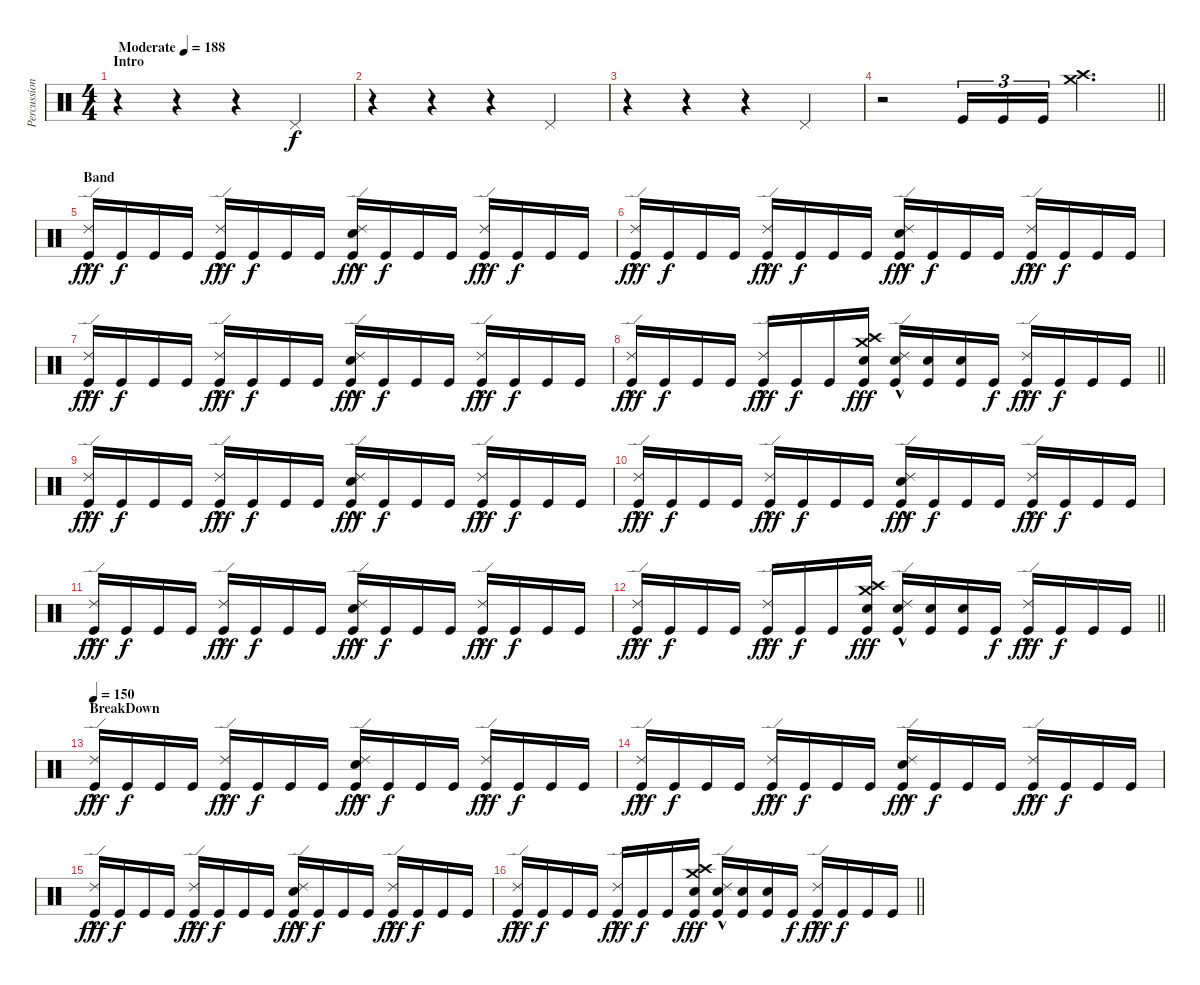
\track ("Percussion" "Percussion") {instrument percussion}
\staff {score}
\articulation defaults
\ts (4 4)
\section ("" "Intro")
\tempo (188 "Moderate")
\clef neutral
\ks c
r.4{dy f} r.4 r.4 "Pedal Hi-Hat (hit)".4 |
r.4 r.4 r.4 "Pedal Hi-Hat (hit)".4 |
r.4 r.4 r.4 "Pedal Hi-Hat (hit)".4 |
\barLineRight lightlight
r.2 "Kick (hit)".16{tu (3 2)} "Kick (hit)".16{tu (3 2)} "Kick (hit)".16{tu (3 2)} ("Crash high (hit)" "Crash medium (hit)").4{d} |
\section ("" "Band")
("Ride (edge) 2"{hac} "Kick (hit)").16{dy fff} "Kick (hit)".16{dy f} "Kick (hit)".16 "Kick (hit)".16 ("Ride (edge) 2"{hac} "Kick (hit)").16{dy fff} "Kick (hit)".16{dy f} "Kick (hit)".16 "Kick (hit)".16 ("Ride (edge) 2"{hac} "Snare (hit) 2" "Kick (hit)").16{dy fff} "Kick (hit)".16{dy f} "Kick (hit)".16 "Kick (hit)".16 ("Ride (edge) 2"{hac} "Kick (hit)").16{dy fff} "Kick (hit)".16{dy f} "Kick (hit)".16 "Kick (hit)".16 |
("Ride (edge) 2"{hac} "Kick (hit)").16{dy fff} "Kick (hit)".16{dy f} "Kick (hit)".16 "Kick (hit)".16 ("Ride (edge) 2"{hac} "Kick (hit)").16{dy fff} "Kick (hit)".16{dy f} "Kick (hit)".16 "Kick (hit)".16 ("Ride (edge) 2"{hac} "Snare (hit) 2" "Kick (hit)").16{dy fff} "Kick (hit)".16{dy f} "Kick (hit)".16 "Kick (hit)".16 ("Ride (edge) 2"{hac} "Kick (hit)").16{dy fff} "Kick (hit)".16{dy f} "Kick (hit)".16 "Kick (hit)".16 |
("Ride (edge) 2"{hac} "Kick (hit)").16{dy fff} "Kick (hit)".16{dy f} "Kick (hit)".16 "Kick (hit)".16 ("Ride (edge) 2"{hac} "Kick (hit)").16{dy fff} "Kick (hit)".16{dy f} "Kick (hit)".16 "Kick (hit)".16 ("Ride (edge) 2"{hac} "Snare (hit) 2" "Kick (hit)").16{dy fff} "Kick (hit)".16{dy f} "Kick (hit)".16 "Kick (hit)".16 ("Ride (edge) 2"{hac} "Kick (hit)").16{dy fff} "Kick (hit)".16{dy f} "Kick (hit)".16 "Kick (hit)".16 |
\barLineRight lightlight
("Ride (edge) 2"{hac} "Kick (hit)").16{dy fff} "Kick (hit)".16{dy f} "Kick (hit)".16 "Kick (hit)".16 ("Ride (edge) 2"{hac} "Kick (hit)").16{dy fff} "Kick (hit)".16{dy f} "Kick (hit)".16 ("Crash medium (hit)" "Crash high (hit)" "Snare (hit) 2" "Kick (hit)").16{dy fff} ("Ride (edge) 2"{hac} "Snare (hit) 2" "Kick (hit)").16 ("Snare (hit) 2" "Kick (hit)").16 ("Snare (hit) 2" "Kick (hit)").16 "Kick (hit)".16{dy f} ("Ride (edge) 2"{hac} "Kick (hit)").16{dy fff} "Kick (hit)".16{dy f} "Kick (hit)".16 "Kick (hit)".16 |
("Ride (edge) 2"{hac} "Kick (hit)").16{dy fff} "Kick (hit)".16{dy f} "Kick (hit)".16 "Kick (hit)".16 ("Ride (edge) 2"{hac} "Kick (hit)").16{dy fff} "Kick (hit)".16{dy f} "Kick (hit)".16 "Kick (hit)".16 ("Ride (edge) 2"{hac} "Snare (hit) 2" "Kick (hit)").16{dy fff} "Kick (hit)".16{dy f} "Kick (hit)".16 "Kick (hit)".16 ("Ride (edge) 2"{hac} "Kick (hit)").16{dy fff} "Kick (hit)".16{dy f} "Kick (hit)".16 "Kick (hit)".16 |
("Ride (edge) 2"{hac} "Kick (hit)").16{dy fff} "Kick (hit)".16{dy f} "Kick (hit)".16 "Kick (hit)".16 ("Ride (edge) 2"{hac} "Kick (hit)").16{dy fff} "Kick (hit)".16{dy f} "Kick (hit)".16 "Kick (hit)".16 ("Ride (edge) 2"{hac} "Snare (hit) 2" "Kick (hit)").16{dy fff} "Kick (hit)".16{dy f} "Kick (hit)".16 "Kick (hit)".16 ("Ride (edge) 2"{hac} "Kick (hit)").16{dy fff} "Kick (hit)".16{dy f} "Kick (hit)".16 "Kick (hit)".16 |
("Ride (edge) 2"{hac} "Kick (hit)").16{dy fff} "Kick (hit)".16{dy f} "Kick (hit)".16 "Kick (hit)".16 ("Ride (edge) 2"{hac} "Kick (hit)").16{dy fff} "Kick (hit)".16{dy f} "Kick (hit)".16 "Kick (hit)".16 ("Ride (edge) 2"{hac} "Snare (hit) 2" "Kick (hit)").16{dy fff} "Kick (hit)".16{dy f} "Kick (hit)".16 "Kick (hit)".16 ("Ride (edge) 2"{hac} "Kick (hit)").16{dy fff} "Kick (hit)".16{dy f} "Kick (hit)".16 "Kick (hit)".16 |
\barLineRight lightlight
("Ride (edge) 2"{hac} "Kick (hit)").16{dy fff} "Kick (hit)".16{dy f} "Kick (hit)".16 "Kick (hit)".16 ("Ride (edge) 2"{hac} "Kick (hit)").16{dy fff} "Kick (hit)".16{dy f} "Kick (hit)".16 ("Crash medium (hit)" "Crash high (hit)" "Snare (hit) 2" "Kick (hit)").16{dy fff} ("Ride (edge) 2"{hac} "Snare (hit) 2" "Kick (hit)").16 ("Snare (hit) 2" "Kick (hit)").16 ("Snare (hit) 2" "Kick (hit)").16 "Kick (hit)".16{dy f} ("Ride (edge) 2"{hac} "Kick (hit)").16{dy fff} "Kick (hit)".16{dy f} "Kick (hit)".16 "Kick (hit)".16 |
\section ("" "BreakDown")
\tempo 150
("Ride (edge) 2"{hac} "Kick (hit)").16{dy fff} "Kick (hit)".16{dy f} "Kick (hit)".16 "Kick (hit)".16 ("Ride (edge) 2"{hac} "Kick (hit)").16{dy fff} "Kick (hit)".16{dy f} "Kick (hit)".16 "Kick (hit)".16 ("Ride (edge) 2"{hac} "Snare (hit) 2" "Kick (hit)").16{dy fff} "Kick (hit)".16{dy f} "Kick (hit)".16 "Kick (hit)".16 ("Ride (edge) 2"{hac} "Kick (hit)").16{dy fff} "Kick (hit)".16{dy f} "Kick (hit)".16 "Kick (hit)".16 |
("Ride (edge) 2"{hac} "Kick (hit)").16{dy fff} "Kick (hit)".16{dy f} "Kick (hit)".16 "Kick (hit)".16 ("Ride (edge) 2"{hac} "Kick (hit)").16{dy fff} "Kick (hit)".16{dy f} "Kick (hit)".16 "Kick (hit)".16 ("Ride (edge) 2"{hac} "Snare (hit) 2" "Kick (hit)").16{dy fff} "Kick (hit)".16{dy f} "Kick (hit)".16 "Kick (hit)".16 ("Ride (edge) 2"{hac} "Kick (hit)").16{dy fff} "Kick (hit)".16{dy f} "Kick (hit)".16 "Kick (hit)".16 |
("Ride (edge) 2"{hac} "Kick (hit)").16{dy fff} "Kick (hit)".16{dy f} "Kick (hit)".16 "Kick (hit)".16 ("Ride (edge) 2"{hac} "Kick (hit)").16{dy fff} "Kick (hit)".16{dy f} "Kick (hit)".16 "Kick (hit)".16 ("Ride (edge) 2"{hac} "Snare (hit) 2" "Kick (hit)").16{dy fff} "Kick (hit)".16{dy f} "Kick (hit)".16 "Kick (hit)".16 ("Ride (edge) 2"{hac} "Kick (hit)").16{dy fff} "Kick (hit)".16{dy f} "Kick (hit)".16 "Kick (hit)".16 |
\barLineRight lightlight
("Ride (edge) 2"{hac} "Kick (hit)").16{dy fff} "Kick (hit)".16{dy f} "Kick (hit)".16 "Kick (hit)".16 ("Ride (edge) 2"{hac} "Kick (hit)").16{dy fff} "Kick (hit)".16{dy f} "Kick (hit)".16 ("Crash medium (hit)" "Crash high (hit)" "Snare (hit) 2" "Kick (hit)").16{dy fff} ("Ride (edge) 2"{hac} "Snare (hit) 2" "Kick (hit)").16 ("Snare (hit) 2" "Kick (hit)").16 ("Snare (hit) 2" "Kick (hit)").16 "Kick (hit)".16{dy f} ("Ride (edge) 2"{hac} "Kick (hit)").16{dy fff} "Kick (hit)".16{dy f} "Kick (hit)".16 "Kick (hit)".16
